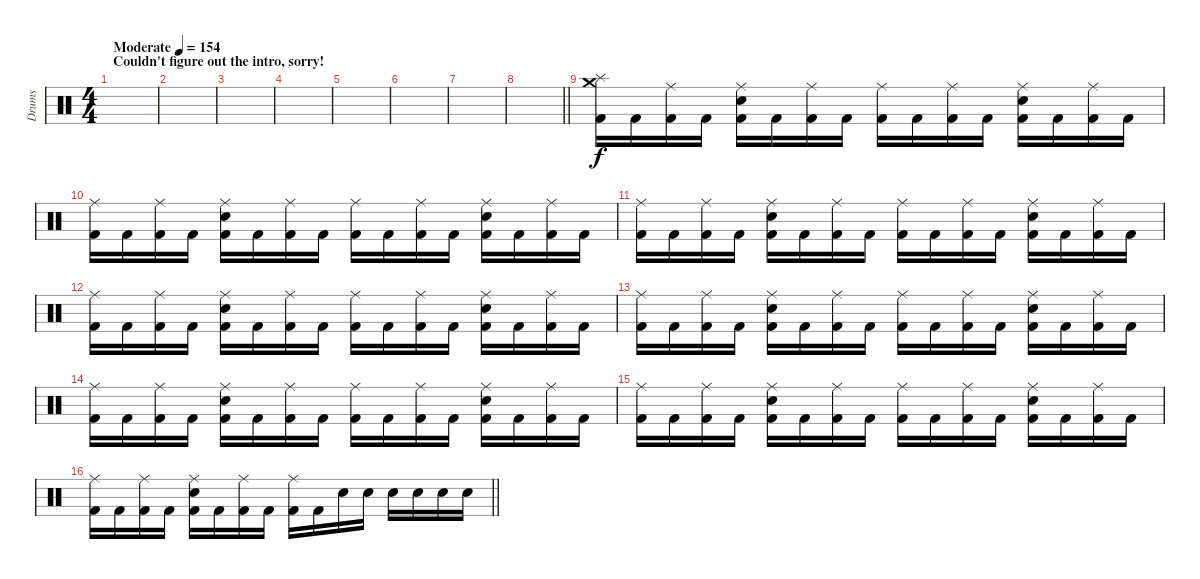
\track ("Drums" "Drums") {instrument percussion}
\staff {score}
\articulation defaults
\ts (4 4)
\section ("" "Couldn't figure out the intro, sorry!")
\tempo (154 "Moderate")
\clef neutral
\ks c
|
|
|
|
|
|
|
\barLineRight lightlight
|
\section ("" "")
("Crash medium (hit)" "Splash (hit)" "Kick (hit) 2").16 "Kick (hit) 2".16 ("Ride (middle)" "Kick (hit) 2").16 "Kick (hit) 2".16 ("Ride (middle)" "Electric Snare (hit)" "Kick (hit) 2").16 "Kick (hit) 2".16 ("Ride (middle)" "Kick (hit) 2").16 "Kick (hit) 2".16 ("Ride (middle)" "Kick (hit) 2").16 "Kick (hit) 2".16 ("Ride (middle)" "Kick (hit) 2").16 "Kick (hit) 2".16 ("Ride (middle)" "Electric Snare (hit)" "Kick (hit) 2").16 "Kick (hit) 2".16 ("Ride (middle)" "Kick (hit) 2").16 "Kick (hit) 2".16 |
("Ride (middle)" "Kick (hit) 2").16 "Kick (hit) 2".16 ("Ride (middle)" "Kick (hit) 2").16 "Kick (hit) 2".16 ("Ride (middle)" "Electric Snare (hit)" "Kick (hit) 2").16 "Kick (hit) 2".16 ("Ride (middle)" "Kick (hit) 2").16 "Kick (hit) 2".16 ("Ride (middle)" "Kick (hit) 2").16 "Kick (hit) 2".16 ("Ride (middle)" "Kick (hit) 2").16 "Kick (hit) 2".16 ("Ride (middle)" "Electric Snare (hit)" "Kick (hit) 2").16 "Kick (hit) 2".16 ("Ride (middle)" "Kick (hit) 2").16 "Kick (hit) 2".16 |
("Ride (middle)" "Kick (hit) 2").16 "Kick (hit) 2".16 ("Ride (middle)" "Kick (hit) 2").16 "Kick (hit) 2".16 ("Ride (middle)" "Electric Snare (hit)" "Kick (hit) 2").16 "Kick (hit) 2".16 ("Ride (middle)" "Kick (hit) 2").16 "Kick (hit) 2".16 ("Ride (middle)" "Kick (hit) 2").16 "Kick (hit) 2".16 ("Ride (middle)" "Kick (hit) 2").16 "Kick (hit) 2".16 ("Ride (middle)" "Electric Snare (hit)" "Kick (hit) 2").16 "Kick (hit) 2".16 ("Ride (middle)" "Kick (hit) 2").16 "Kick (hit) 2".16 |
("Ride (middle)" "Kick (hit) 2").16 "Kick (hit) 2".16 ("Ride (middle)" "Kick (hit) 2").16 "Kick (hit) 2".16 ("Ride (middle)" "Electric Snare (hit)" "Kick (hit) 2").16 "Kick (hit) 2".16 ("Ride (middle)" "Kick (hit) 2").16 "Kick (hit) 2".16 ("Ride (middle)" "Kick (hit) 2").16 "Kick (hit) 2".16 ("Ride (middle)" "Kick (hit) 2").16 "Kick (hit) 2".16 ("Ride (middle)" "Electric Snare (hit)" "Kick (hit) 2").16 "Kick (hit) 2".16 ("Ride (middle)" "Kick (hit) 2").16 "Kick (hit) 2".16 |
("Ride (middle)" "Kick (hit) 2").16 "Kick (hit) 2".16 ("Ride (middle)" "Kick (hit) 2").16 "Kick (hit) 2".16 ("Ride (middle)" "Electric Snare (hit)" "Kick (hit) 2").16 "Kick (hit) 2".16 ("Ride (middle)" "Kick (hit) 2").16 "Kick (hit) 2".16 ("Ride (middle)" "Kick (hit) 2").16 "Kick (hit) 2".16 ("Ride (middle)" "Kick (hit) 2").16 "Kick (hit) 2".16 ("Ride (middle)" "Electric Snare (hit)" "Kick (hit) 2").16 "Kick (hit) 2".16 ("Ride (middle)" "Kick (hit) 2").16 "Kick (hit) 2".16 |
("Ride (middle)" "Kick (hit) 2").16 "Kick (hit) 2".16 ("Ride (middle)" "Kick (hit) 2").16 "Kick (hit) 2".16 ("Ride (middle)" "Electric Snare (hit)" "Kick (hit) 2").16 "Kick (hit) 2".16 ("Ride (middle)" "Kick (hit) 2").16 "Kick (hit) 2".16 ("Ride (middle)" "Kick (hit) 2").16 "Kick (hit) 2".16 ("Ride (middle)" "Kick (hit) 2").16 "Kick (hit) 2".16 ("Ride (middle)" "Electric Snare (hit)" "Kick (hit) 2").16 "Kick (hit) 2".16 ("Ride (middle)" "Kick (hit) 2").16 "Kick (hit) 2".16 |
("Ride (middle)" "Kick (hit) 2").16 "Kick (hit) 2".16 ("Ride (middle)" "Kick (hit) 2").16 "Kick (hit) 2".16 ("Ride (middle)" "Electric Snare (hit)" "Kick (hit) 2").16 "Kick (hit) 2".16 ("Ride (middle)" "Kick (hit) 2").16 "Kick (hit) 2".16 ("Ride (middle)" "Kick (hit) 2").16 "Kick (hit) 2".16 ("Ride (middle)" "Kick (hit) 2").16 "Kick (hit) 2".16 ("Ride (middle)" "Electric Snare (hit)" "Kick (hit) 2").16 "Kick (hit) 2".16 ("Ride (middle)" "Kick (hit) 2").16 "Kick (hit) 2".16 |
\barLineRight lightlight
("Ride (middle)" "Kick (hit) 2").16 "Kick (hit) 2".16 ("Ride (middle)" "Kick (hit) 2").16 "Kick (hit) 2".16 ("Ride (middle)" "Electric Snare (hit)" "Kick (hit) 2").16 "Kick (hit) 2".16 ("Ride (middle)" "Kick (hit) 2").16 "Kick (hit) 2".16 ("Ride (middle)" "Kick (hit) 2").16 "Kick (hit) 2".16 "Electric Snare (hit)".16 "Electric Snare (hit)".16 "Electric Snare (hit)".16 "Electric Snare (hit)".16 "Electric Snare (hit)".16 "Electric Snare (hit)".16
